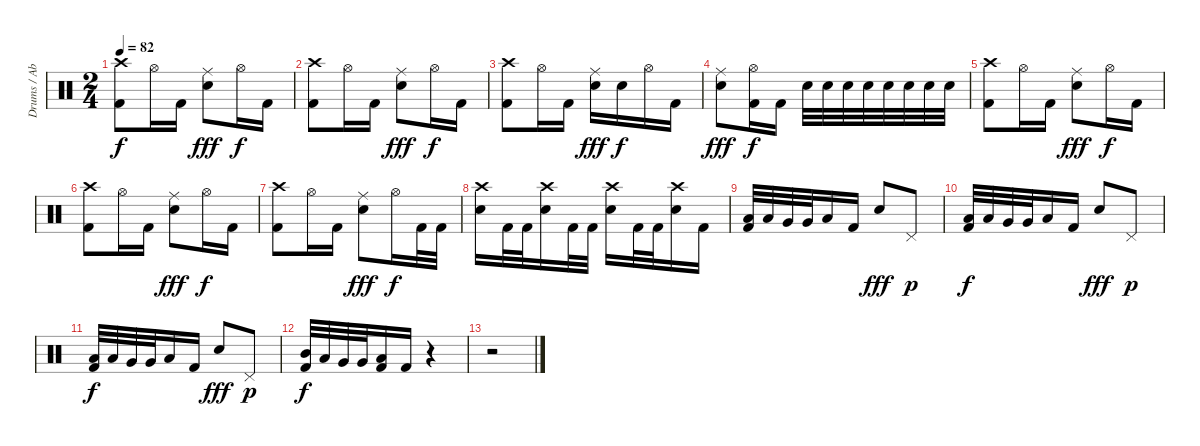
\track ("Drums / Abe Cunningham" "Drums / Ab") {instrument percussion}
\staff {score}
\articulation defaults
\ts (2 4)
\tempo 82
\clef neutral
\ks c
("Crash high (hit)" "Kick (hit) 2").8{dy f} "Hi-Hat (open)".16 "Kick (hit) 2".16 ("Ride (middle)" "Electric Snare (hit)").8{dy fff} "Hi-Hat (open)".16{dy f} "Kick (hit) 2".16 |
("Crash high (hit)" "Kick (hit) 2").8 "Hi-Hat (open)".16 "Kick (hit) 2".16 ("Ride (middle)" "Electric Snare (hit)").8{dy fff} "Hi-Hat (open)".16{dy f} "Kick (hit) 2".16 |
("Crash high (hit)" "Kick (hit) 2").8 "Hi-Hat (open)".16 "Kick (hit) 2".16 ("Ride (middle)" "Electric Snare (hit)").16{dy fff} "Electric Snare (hit)".16{dy f} "Hi-Hat (open)".16 "Kick (hit) 2".16 |
("Ride (middle)" "Electric Snare (hit)").8{dy fff} ("Hi-Hat (open)" "Kick (hit) 2").16{dy f} "Kick (hit) 2".16 "Electric Snare (hit)".32 "Electric Snare (hit)".32 "Electric Snare (hit)".32 "Electric Snare (hit)".32 "Electric Snare (hit)".32 "Electric Snare (hit)".32 "Electric Snare (hit)".32 "Electric Snare (hit)".32 |
("Crash high (hit)" "Kick (hit) 2").8 "Hi-Hat (open)".16 "Kick (hit) 2".16 ("Ride (middle)" "Electric Snare (hit)").8{dy fff} "Hi-Hat (open)".16{dy f} "Kick (hit) 2".16 |
("Crash high (hit)" "Kick (hit) 2").8 "Hi-Hat (open)".16 "Kick (hit) 2".16 ("Ride (middle)" "Electric Snare (hit)").8{dy fff} "Hi-Hat (open)".16{dy f} "Kick (hit) 2".16 |
("Crash high (hit)" "Kick (hit) 2").8 "Hi-Hat (open)".16 "Kick (hit) 2".16 ("Ride (middle)" "Electric Snare (hit)").8{dy fff} "Hi-Hat (open)".16{dy f} "Kick (hit) 2".32 "Kick (hit) 2".32 |
("Crash high (hit)" "Electric Snare (hit)").16 "Kick (hit) 2".32 "Kick (hit) 2".32 ("Crash high (hit)" "Electric Snare (hit)").16 "Kick (hit) 2".32 "Kick (hit) 2".32 ("Crash high (hit)" "Electric Snare (hit)").16 "Kick (hit) 2".32 "Kick (hit) 2".32 ("Crash high (hit)" "Electric Snare (hit)").16 "Kick (hit) 2".16 |
("Low Tom (hit)" "Kick (hit) 2").32 "Low Tom (hit)".32 "Very Low Tom (hit)".32 "Very Low Tom (hit)".32 "Low Floor Tom (hit)".16 "Kick (hit) 2".16 "Electric Snare (hit)".8{dy fff} "Pedal Hi-Hat (hit)".8{dy p} |
("Low Tom (hit)" "Kick (hit) 2").32{dy f} "Low Tom (hit)".32 "Very Low Tom (hit)".32 "Very Low Tom (hit)".32 "Low Floor Tom (hit)".16 "Kick (hit) 2".16 "Electric Snare (hit)".8{dy fff} "Pedal Hi-Hat (hit)".8{dy p} |
("Low Tom (hit)" "Kick (hit) 2").32{dy f} "Low Tom (hit)".32 "Very Low Tom (hit)".32 "Very Low Tom (hit)".32 "Low Floor Tom (hit)".16 "Kick (hit) 2".16 "Electric Snare (hit)".8{dy fff} "Pedal Hi-Hat (hit)".8{dy p} |
("Mid Tom (hit)" "Kick (hit) 2").32{dy f} "Low Tom (hit)".32 "Very Low Tom (hit)".32 "Very Low Tom (hit)".32 ("Low Floor Tom (hit)" "Kick (hit) 2").16 "Kick (hit) 2".16 r.4 |
r.2
